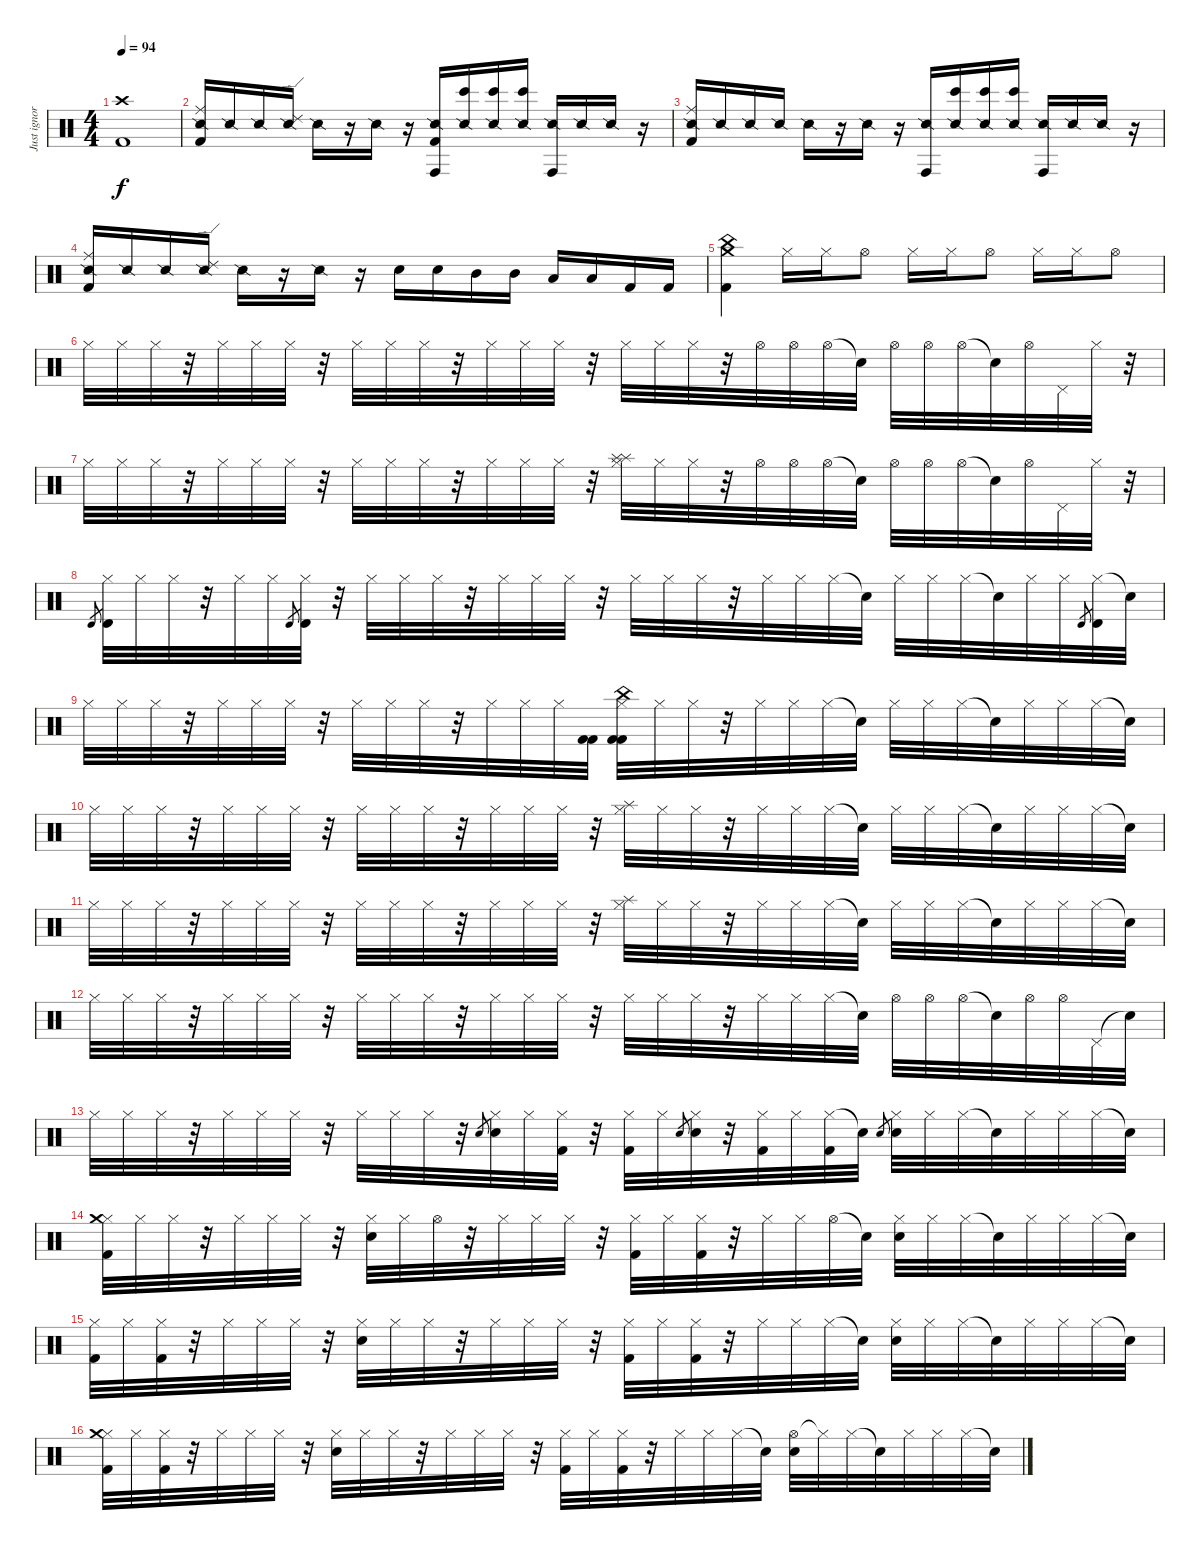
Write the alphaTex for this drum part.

\track ("Just ignore this track" "Just ignor") {instrument percussion}
\staff {score}
\articulation defaults
\ts (4 4)
\tempo 94
\clef neutral
\ks c
("Crash high (hit)" "Kick (hit) 2").1{dy f} |
("Ride (middle)" "Snare (side stick) 2" "Kick (hit) 2").16 "Snare (side stick) 2".16 "Snare (side stick) 2".16 ("Ride (edge) 2" "Snare (side stick) 2").16 "Snare (side stick) 2".16 r.16 "Snare (side stick) 2".16 r.16 ("Conga high (hit)" "Snare (side stick) 2" "Kick (hit) 2").16 ("Bongo High (hit)" "Snare (side stick) 2").16 ("Bongo High (hit)" "Snare (side stick) 2").16 ("Bongo High (hit)" "Snare (side stick) 2").16 ("Conga high (hit)" "Snare (side stick) 2").16 "Snare (side stick) 2".16 "Snare (side stick) 2".16 r.16 |
("Ride (middle)" "Snare (side stick) 2" "Kick (hit) 2").16 "Snare (side stick) 2".16 "Snare (side stick) 2".16 "Snare (side stick) 2".16 "Snare (side stick) 2".16 r.16 "Snare (side stick) 2".16 r.16 ("Conga high (hit)" "Snare (side stick) 2").16 ("Bongo High (hit)" "Snare (side stick) 2").16 ("Bongo High (hit)" "Snare (side stick) 2").16 ("Bongo High (hit)" "Snare (side stick) 2").16 ("Conga high (hit)" "Snare (side stick) 2").16 "Snare (side stick) 2".16 "Snare (side stick) 2".16 r.16 |
("Ride (middle)" "Snare (side stick) 2" "Kick (hit) 2").16 "Snare (side stick) 2".16 "Snare (side stick) 2".16 ("Ride (edge) 2" "Snare (side stick) 2").16 "Snare (side stick) 2".16 r.16 "Snare (side stick) 2".16 r.16 "Electric Snare (hit)".16 "Electric Snare (hit)".16 "Mid Tom (hit)".16 "Mid Tom (hit)".16 "Low Tom (hit)".16 "Low Tom (hit)".16 "Kick (hit) 2".16 "Kick (hit) 2".16 |
("Crash medium (hit)" "China (hit)" "Kick (hit) 2").4 "Hi-Hat (closed)".16 "Hi-Hat (closed)".16 "Hi-Hat (open)".8 "Hi-Hat (closed)".16 "Hi-Hat (closed)".16 "Hi-Hat (open)".8 "Hi-Hat (closed)".16 "Hi-Hat (closed)".16 "Hi-Hat (open)".8 |
"Hi-Hat (closed)".32 "Hi-Hat (closed)".32 "Hi-Hat (closed)".32 r.32 "Hi-Hat (closed)".32 "Hi-Hat (closed)".32 "Hi-Hat (closed)".32 r.32 "Hi-Hat (closed)".32 "Hi-Hat (closed)".32 "Hi-Hat (closed)".32 r.32 "Hi-Hat (closed)".32 "Hi-Hat (closed)".32 "Hi-Hat (closed)".32 r.32 "Hi-Hat (closed)".32 "Hi-Hat (closed)".32 "Hi-Hat (closed)".32 r.32 "Hi-Hat (open)".32 "Hi-Hat (open)".32 "Hi-Hat (open)".32 "Snare (hit)"{t}.32 "Hi-Hat (open)".32 "Hi-Hat (open)".32 "Hi-Hat (open)".32 "Snare (hit)"{t}.32 "Hi-Hat (open)".32 "Pedal Hi-Hat (hit)".32 "Hi-Hat (closed)".32 r.32 |
"Hi-Hat (closed)".32 "Hi-Hat (closed)".32 "Hi-Hat (closed)".32 r.32 "Hi-Hat (closed)".32 "Hi-Hat (closed)".32 "Hi-Hat (closed)".32 r.32 "Hi-Hat (closed)".32 "Hi-Hat (closed)".32 "Hi-Hat (closed)".32 r.32 "Hi-Hat (closed)".32 "Hi-Hat (closed)".32 "Hi-Hat (closed)".32 r.32 ("Hi-Hat (closed)" "Splash (hit)" "Splash (hit)").32 "Hi-Hat (closed)".32 "Hi-Hat (closed)".32 r.32 "Hi-Hat (open)".32 "Hi-Hat (open)".32 "Hi-Hat (open)".32 "Snare (hit)"{t}.32 "Hi-Hat (open)".32 "Hi-Hat (open)".32 "Hi-Hat (open)".32 "Snare (hit)"{t}.32 "Hi-Hat (open)".32 "Pedal Hi-Hat (hit)".32 "Hi-Hat (closed)".32 r.32 |
"Timbale high (hit)".8{gr} ("Hi-Hat (closed)" "Timbale high (hit)").32 "Hi-Hat (closed)".32 "Hi-Hat (closed)".32 r.32 "Hi-Hat (closed)".32 "Hi-Hat (closed)".32 "Timbale high (hit)".8{gr} ("Hi-Hat (closed)" "Timbale high (hit)").32 r.32 "Hi-Hat (closed)".32 "Hi-Hat (closed)".32 "Hi-Hat (closed)".32 r.32 "Hi-Hat (closed)".32 "Hi-Hat (closed)".32 "Hi-Hat (closed)".32 r.32 "Hi-Hat (closed)".32 "Hi-Hat (closed)".32 "Hi-Hat (closed)".32 r.32 "Hi-Hat (closed)".32 "Hi-Hat (closed)".32 "Hi-Hat (closed)".32 "Snare (hit)"{t}.32 "Hi-Hat (closed)".32 "Hi-Hat (closed)".32 "Hi-Hat (closed)".32 "Snare (hit)"{t}.32 "Hi-Hat (closed)".32 "Hi-Hat (closed)".32 "Timbale high (hit)".8{gr} ("Hi-Hat (closed)" "Timbale high (hit)").32 "Snare (hit)"{t}.32 |
"Hi-Hat (closed)".32 "Hi-Hat (closed)".32 "Hi-Hat (closed)".32 r.32 "Hi-Hat (closed)".32 "Hi-Hat (closed)".32 "Hi-Hat (closed)".32 r.32 "Hi-Hat (closed)".32 "Hi-Hat (closed)".32 "Hi-Hat (closed)".32 r.32 "Hi-Hat (closed)".32 "Hi-Hat (closed)".32 "Hi-Hat (closed)".32 ("Kick (hit) 2" "Kick (hit) 2").32 ("Hi-Hat (closed)" "China (hit)" "Kick (hit) 2" "Kick (hit) 2").32 "Hi-Hat (closed)".32 "Hi-Hat (closed)".32 r.32 "Hi-Hat (closed)".32 "Hi-Hat (closed)".32 "Hi-Hat (closed)".32 "Snare (hit)"{t}.32 "Hi-Hat (closed)".32 "Hi-Hat (closed)".32 "Hi-Hat (closed)".32 "Snare (hit)"{t}.32 "Hi-Hat (closed)".32 "Hi-Hat (closed)".32 "Hi-Hat (closed)".32 "Snare (hit)"{t}.32 |
"Hi-Hat (closed)".32 "Hi-Hat (closed)".32 "Hi-Hat (closed)".32 r.32 "Hi-Hat (closed)".32 "Hi-Hat (closed)".32 "Hi-Hat (closed)".32 r.32 "Hi-Hat (closed)".32 "Hi-Hat (closed)".32 "Hi-Hat (closed)".32 r.32 "Hi-Hat (closed)".32 "Hi-Hat (closed)".32 "Hi-Hat (closed)".32 r.32 ("Hi-Hat (closed)" "Splash (hit)").32 "Hi-Hat (closed)".32 "Hi-Hat (closed)".32 r.32 "Hi-Hat (closed)".32 "Hi-Hat (closed)".32 "Hi-Hat (closed)".32 "Snare (hit)"{t}.32 "Hi-Hat (closed)".32 "Hi-Hat (closed)".32 "Hi-Hat (closed)".32 "Snare (hit)"{t}.32 "Hi-Hat (closed)".32 "Hi-Hat (closed)".32 "Hi-Hat (closed)".32 "Snare (hit)"{t}.32 |
"Hi-Hat (closed)".32 "Hi-Hat (closed)".32 "Hi-Hat (closed)".32 r.32 "Hi-Hat (closed)".32 "Hi-Hat (closed)".32 "Hi-Hat (closed)".32 r.32 "Hi-Hat (closed)".32 "Hi-Hat (closed)".32 "Hi-Hat (closed)".32 r.32 "Hi-Hat (closed)".32 "Hi-Hat (closed)".32 "Hi-Hat (closed)".32 r.32 ("Hi-Hat (closed)" "Splash (hit)").32 "Hi-Hat (closed)".32 "Hi-Hat (closed)".32 r.32 "Hi-Hat (closed)".32 "Hi-Hat (closed)".32 "Hi-Hat (closed)".32 "Snare (hit)"{t}.32 "Hi-Hat (closed)".32 "Hi-Hat (closed)".32 "Hi-Hat (closed)".32 "Snare (hit)"{t}.32 "Hi-Hat (closed)".32 "Hi-Hat (closed)".32 "Hi-Hat (closed)".32 "Snare (hit)"{t}.32 |
"Hi-Hat (closed)".32 "Hi-Hat (closed)".32 "Hi-Hat (closed)".32 r.32 "Hi-Hat (closed)".32 "Hi-Hat (closed)".32 "Hi-Hat (closed)".32 r.32 "Hi-Hat (closed)".32 "Hi-Hat (closed)".32 "Hi-Hat (closed)".32 r.32 "Hi-Hat (closed)".32 "Hi-Hat (closed)".32 "Hi-Hat (closed)".32 r.32 "Hi-Hat (closed)".32 "Hi-Hat (closed)".32 "Hi-Hat (closed)".32 r.32 "Hi-Hat (closed)".32 "Hi-Hat (closed)".32 "Hi-Hat (closed)".32 "Snare (hit)"{t}.32 "Hi-Hat (open)".32 "Hi-Hat (open)".32 "Hi-Hat (open)".32 "Snare (hit)"{t}.32 "Hi-Hat (open)".32 "Hi-Hat (open)".32 "Pedal Hi-Hat (hit)".32 "Snare (hit)"{t}.32 |
"Hi-Hat (closed)".32 "Hi-Hat (closed)".32 "Hi-Hat (closed)".32 r.32 "Hi-Hat (closed)".32 "Hi-Hat (closed)".32 "Hi-Hat (closed)".32 r.32 "Hi-Hat (closed)".32 "Hi-Hat (closed)".32 "Hi-Hat (closed)".32 r.32 "Electric Snare (hit)".8{gr} ("Hi-Hat (closed)" "Electric Snare (hit)").32 "Hi-Hat (closed)".32 ("Hi-Hat (closed)" "Kick (hit) 2").32 r.32 ("Hi-Hat (closed)" "Kick (hit) 2").32 "Hi-Hat (closed)".32 "Electric Snare (hit)".8{gr} ("Hi-Hat (closed)" "Electric Snare (hit)").32 r.32 ("Hi-Hat (closed)" "Kick (hit) 2").32 "Hi-Hat (closed)".32 ("Hi-Hat (closed)" "Kick (hit) 2").32 "Snare (hit)"{t}.32 "Electric Snare (hit)".8{gr} ("Hi-Hat (closed)" "Electric Snare (hit)").32 "Hi-Hat (closed)".32 "Hi-Hat (closed)".32 "Snare (hit)"{t}.32 "Hi-Hat (closed)".32 "Hi-Hat (closed)".32 "Hi-Hat (closed)".32 "Snare (hit)"{t}.32 |
("Hi-Hat (closed)" "Crash medium (hit)" "Kick (hit) 2").32 "Hi-Hat (closed)".32 "Hi-Hat (closed)".32 r.32 "Hi-Hat (closed)".32 "Hi-Hat (closed)".32 "Hi-Hat (closed)".32 r.32 ("Hi-Hat (closed)" "Electric Snare (hit)").32 "Hi-Hat (closed)".32 "Hi-Hat (open)".32 r.32 "Hi-Hat (closed)".32 "Hi-Hat (closed)".32 "Hi-Hat (closed)".32 r.32 ("Hi-Hat (closed)" "Kick (hit) 2").32 "Hi-Hat (closed)".32 ("Hi-Hat (closed)" "Kick (hit) 2").32 r.32 "Hi-Hat (closed)".32 "Hi-Hat (closed)".32 "Hi-Hat (open)".32 "Snare (hit)"{t}.32 ("Hi-Hat (closed)" "Electric Snare (hit)").32 "Hi-Hat (closed)".32 "Hi-Hat (closed)".32 "Snare (hit)"{t}.32 "Hi-Hat (closed)".32 "Hi-Hat (closed)".32 "Hi-Hat (closed)".32 "Snare (hit)"{t}.32 |
("Hi-Hat (closed)" "Kick (hit) 2").32 "Hi-Hat (closed)".32 ("Hi-Hat (closed)" "Kick (hit) 2").32 r.32 "Hi-Hat (closed)".32 "Hi-Hat (closed)".32 "Hi-Hat (closed)".32 r.32 ("Hi-Hat (closed)" "Electric Snare (hit)").32 "Hi-Hat (closed)".32 "Hi-Hat (closed)".32 r.32 "Hi-Hat (closed)".32 "Hi-Hat (closed)".32 "Hi-Hat (closed)".32 r.32 ("Hi-Hat (closed)" "Kick (hit) 2").32 "Hi-Hat (closed)".32 ("Hi-Hat (closed)" "Kick (hit) 2").32 r.32 "Hi-Hat (closed)".32 "Hi-Hat (closed)".32 "Hi-Hat (closed)".32 "Snare (hit)"{t}.32 ("Hi-Hat (closed)" "Electric Snare (hit)").32 "Hi-Hat (closed)".32 "Hi-Hat (closed)".32 "Snare (hit)"{t}.32 "Hi-Hat (closed)".32 "Hi-Hat (closed)".32 "Hi-Hat (closed)".32 "Snare (hit)"{t}.32 |
("Hi-Hat (closed)" "Crash medium (hit)" "Kick (hit) 2").32 "Hi-Hat (closed)".32 ("Hi-Hat (closed)" "Kick (hit) 2").32 r.32 "Hi-Hat (closed)".32 "Hi-Hat (closed)".32 "Hi-Hat (closed)".32 r.32 ("Hi-Hat (closed)" "Electric Snare (hit)").32 "Hi-Hat (closed)".32 "Hi-Hat (closed)".32 r.32 "Hi-Hat (closed)".32 "Hi-Hat (closed)".32 "Hi-Hat (closed)".32 r.32 ("Hi-Hat (closed)" "Kick (hit) 2").32 "Hi-Hat (closed)".32 ("Hi-Hat (closed)" "Kick (hit) 2").32 r.32 "Hi-Hat (closed)".32 "Hi-Hat (closed)".32 "Hi-Hat (closed)".32 "Snare (hit)"{t}.32 ("Hi-Hat (open)" "Electric Snare (hit)").32 "Hi-Hat (closed)"{t}.32 "Hi-Hat (closed)".32 "Snare (hit)"{t}.32 "Hi-Hat (closed)".32 "Hi-Hat (closed)".32 "Hi-Hat (closed)".32 "Snare (hit)"{t}.32
